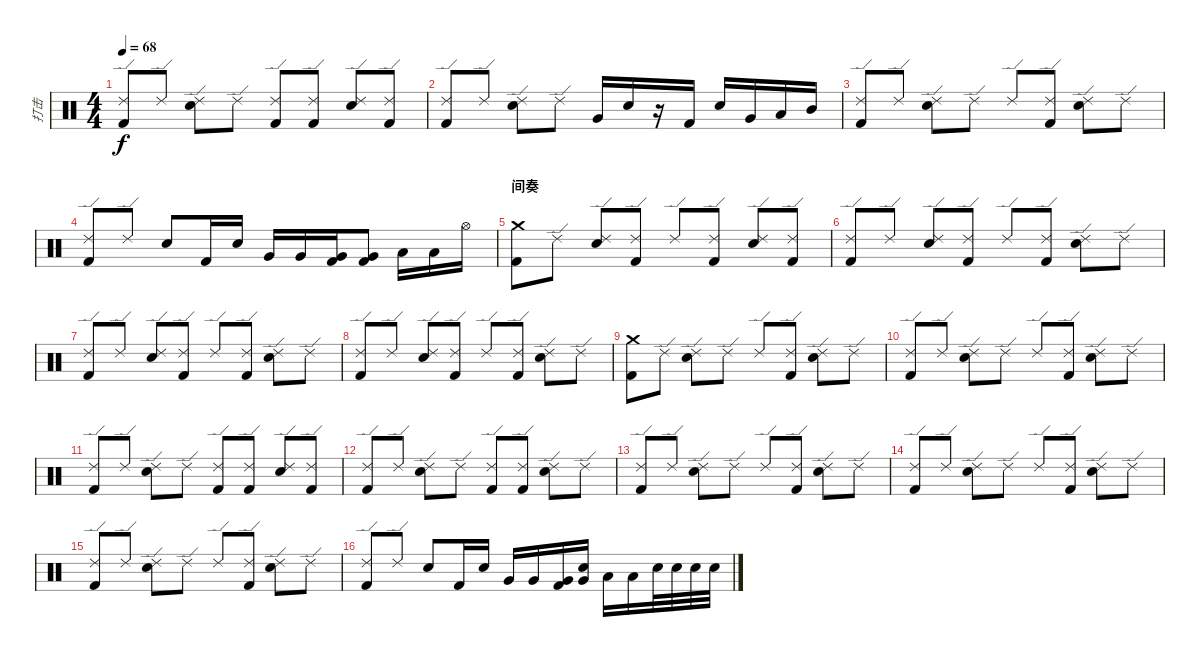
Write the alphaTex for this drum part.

\track ("打击" "打击") {instrument percussion}
\staff {score}
\articulation defaults
\ts (4 4)
\tempo 68
\clef neutral
\ks c
("Kick (hit) 2" "Ride (edge) 2").8{dy f} "Ride (edge) 2".8 ("Electric Snare (hit)" "Ride (edge) 2").8 "Ride (edge) 2".8 ("Kick (hit) 2" "Ride (edge) 2").8 ("Kick (hit) 2" "Ride (edge) 2").8 ("Electric Snare (hit)" "Ride (edge) 2").8 ("Kick (hit) 2" "Ride (edge) 2").8 |
("Kick (hit) 2" "Ride (edge) 2").8 "Ride (edge) 2".8 ("Electric Snare (hit)" "Ride (edge) 2").8 "Ride (edge) 2".8 "Very Low Tom (hit)".16 "Electric Snare (hit)".16 r.16 "Kick (hit) 2".16 "Electric Snare (hit)".16 "Very Low Tom (hit)".16 "Low Tom (hit)".16 "Mid Tom (hit)".16 |
("Kick (hit) 2" "Ride (edge) 2").8 "Ride (edge) 2".8 ("Electric Snare (hit)" "Ride (edge) 2").8 "Ride (edge) 2".8 "Ride (edge) 2".8 ("Kick (hit) 2" "Ride (edge) 2").8 ("Electric Snare (hit)" "Ride (edge) 2").8 "Ride (edge) 2".8 |
("Kick (hit) 2" "Ride (edge) 2").8 "Ride (edge) 2".8 "Electric Snare (hit)".8 "Kick (hit) 2".16 "Electric Snare (hit)".16 "Very Low Tom (hit)".16 "Very Low Tom (hit)".16 ("Kick (hit) 2" "Very Low Tom (hit)").16 ("Kick (hit) 2" "Very Low Tom (hit)").8 "Low Tom (hit)".16 "Low Tom (hit)".16 "Hi-Hat (open)".16 |
\section ("" "间奏")
("Kick (hit) 2" "Crash medium (hit)").8 "Ride (edge) 2".8 ("Electric Snare (hit)" "Ride (edge) 2").8 ("Kick (hit) 2" "Ride (edge) 2").8 "Ride (edge) 2".8 ("Kick (hit) 2" "Ride (edge) 2").8 ("Electric Snare (hit)" "Ride (edge) 2").8 ("Kick (hit) 2" "Ride (edge) 2").8 |
("Kick (hit) 2" "Ride (edge) 2").8 "Ride (edge) 2".8 ("Electric Snare (hit)" "Ride (edge) 2").8 ("Kick (hit) 2" "Ride (edge) 2").8 "Ride (edge) 2".8 ("Kick (hit) 2" "Ride (edge) 2").8 ("Electric Snare (hit)" "Ride (edge) 2").8 "Ride (edge) 2".8 |
("Kick (hit) 2" "Ride (edge) 2").8 "Ride (edge) 2".8 ("Electric Snare (hit)" "Ride (edge) 2").8 ("Kick (hit) 2" "Ride (edge) 2").8 "Ride (edge) 2".8 ("Kick (hit) 2" "Ride (edge) 2").8 ("Electric Snare (hit)" "Ride (edge) 2").8 "Ride (edge) 2".8 |
("Kick (hit) 2" "Ride (edge) 2").8 "Ride (edge) 2".8 ("Electric Snare (hit)" "Ride (edge) 2").8 ("Kick (hit) 2" "Ride (edge) 2").8 "Ride (edge) 2".8 ("Kick (hit) 2" "Ride (edge) 2").8 ("Electric Snare (hit)" "Ride (edge) 2").8 "Ride (edge) 2".8 |
("Kick (hit) 2" "Crash medium (hit)").8 "Ride (edge) 2".8 ("Electric Snare (hit)" "Ride (edge) 2").8 "Ride (edge) 2".8 "Ride (edge) 2".8 ("Kick (hit) 2" "Ride (edge) 2").8 ("Electric Snare (hit)" "Ride (edge) 2").8 "Ride (edge) 2".8 |
("Kick (hit) 2" "Ride (edge) 2").8 "Ride (edge) 2".8 ("Electric Snare (hit)" "Ride (edge) 2").8 "Ride (edge) 2".8 "Ride (edge) 2".8 ("Kick (hit) 2" "Ride (edge) 2").8 ("Electric Snare (hit)" "Ride (edge) 2").8 "Ride (edge) 2".8 |
("Kick (hit) 2" "Ride (edge) 2").8 "Ride (edge) 2".8 ("Electric Snare (hit)" "Ride (edge) 2").8 "Ride (edge) 2".8 ("Kick (hit) 2" "Ride (edge) 2").8 ("Kick (hit) 2" "Ride (edge) 2").8 ("Electric Snare (hit)" "Ride (edge) 2").8 ("Kick (hit) 2" "Ride (edge) 2").8 |
("Kick (hit) 2" "Ride (edge) 2").8 "Ride (edge) 2".8 ("Electric Snare (hit)" "Ride (edge) 2").8 "Ride (edge) 2".8 ("Kick (hit) 2" "Ride (edge) 2").8 ("Kick (hit) 2" "Ride (edge) 2").8 ("Electric Snare (hit)" "Ride (edge) 2").8 "Ride (edge) 2".8 |
("Kick (hit) 2" "Ride (edge) 2").8 "Ride (edge) 2".8 ("Electric Snare (hit)" "Ride (edge) 2").8 "Ride (edge) 2".8 "Ride (edge) 2".8 ("Kick (hit) 2" "Ride (edge) 2").8 ("Electric Snare (hit)" "Ride (edge) 2").8 "Ride (edge) 2".8 |
("Kick (hit) 2" "Ride (edge) 2").8 "Ride (edge) 2".8 ("Electric Snare (hit)" "Ride (edge) 2").8 "Ride (edge) 2".8 "Ride (edge) 2".8 ("Kick (hit) 2" "Ride (edge) 2").8 ("Electric Snare (hit)" "Ride (edge) 2").8 "Ride (edge) 2".8 |
("Kick (hit) 2" "Ride (edge) 2").8 "Ride (edge) 2".8 ("Electric Snare (hit)" "Ride (edge) 2").8 "Ride (edge) 2".8 "Ride (edge) 2".8 ("Kick (hit) 2" "Ride (edge) 2").8 ("Electric Snare (hit)" "Ride (edge) 2").8 "Ride (edge) 2".8 |
("Kick (hit) 2" "Ride (edge) 2").8 "Ride (edge) 2".8 "Electric Snare (hit)".8 "Kick (hit) 2".16 "Electric Snare (hit)".16 "Very Low Tom (hit)".16 "Very Low Tom (hit)".16 ("Kick (hit) 2" "Very Low Tom (hit)").16 ("Electric Snare (hit)" "Very Low Tom (hit)").16 "Low Tom (hit)".16 "Low Tom (hit)".16 "Electric Snare (hit)".32 "Electric Snare (hit)".32 "Electric Snare (hit)".32 "Electric Snare (hit)".32
